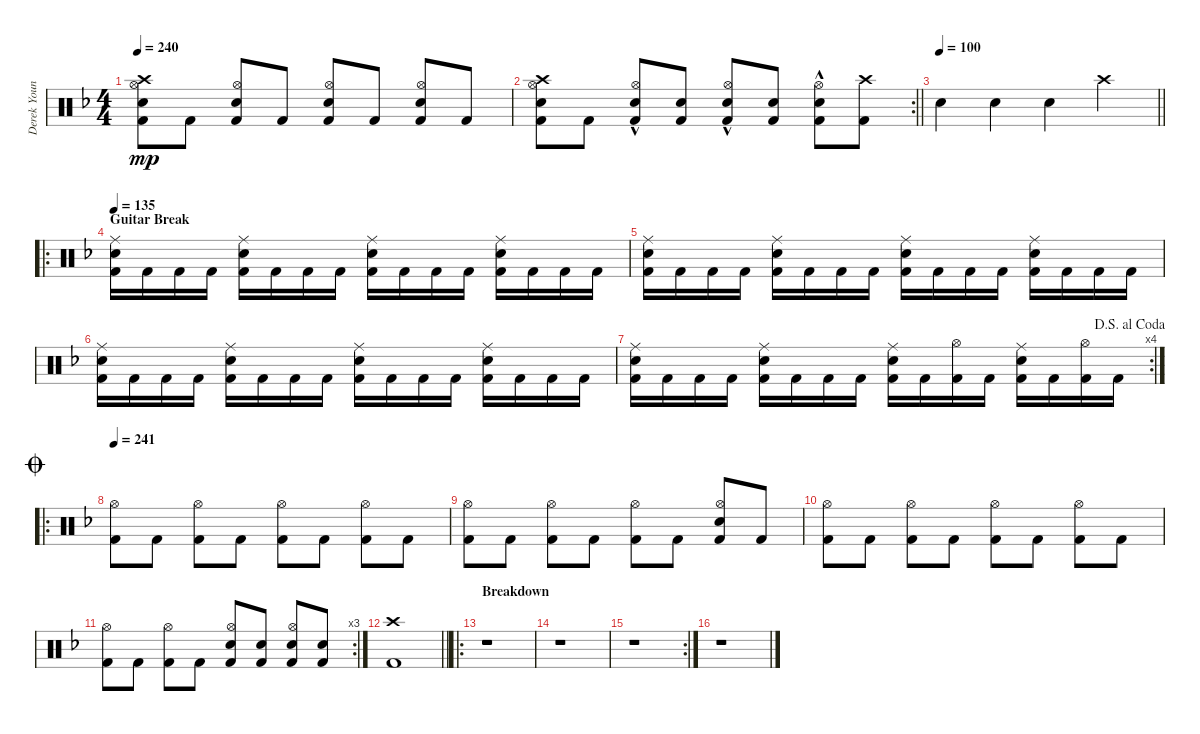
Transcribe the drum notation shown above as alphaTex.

\track ("Derek Youngsma" "Derek Youn") {instrument percussion}
\staff {score}
\articulation defaults
\ts (4 4)
\tempo 240
\clef neutral
\ks f
("Crash high (hit)" "Electric Snare (hit)" "Hi-Hat (open)" "Kick (hit) 2").8{dy mp} "Kick (hit) 2".8 ("Electric Snare (hit)" "Hi-Hat (open)" "Kick (hit) 2").8 "Kick (hit) 2".8 ("Electric Snare (hit)" "Hi-Hat (open)" "Kick (hit) 2").8 "Kick (hit) 2".8 ("Electric Snare (hit)" "Hi-Hat (open)" "Kick (hit) 2").8 "Kick (hit) 2".8 |
\rc 2
\barLineRight lightlight
("Crash high (hit)" "Electric Snare (hit)" "Hi-Hat (open)" "Kick (hit) 2").8 "Kick (hit) 2".8 ("Electric Snare (hit)"{hac} "Hi-Hat (open)" "Kick (hit) 2").8 ("Electric Snare (hit)" "Kick (hit) 2").8 ("Electric Snare (hit)"{hac} "Hi-Hat (open)" "Kick (hit) 2").8 ("Electric Snare (hit)" "Kick (hit) 2").8 ("Electric Snare (hit)"{hac} "Hi-Hat (open)" "Kick (hit) 2").8 ("Crash high (hit)" "Kick (hit) 2").8 |
\tempo 100
\barLineRight lightlight "Electric Snare (hit)".4 "Electric Snare (hit)".4 "Electric Snare (hit)".4 "Crash high (hit)".4
|
\ro
\section ("" "Guitar Break")
\tempo 135
("Ride (middle)" "Electric Snare (hit)" "Kick (hit) 2").16 "Kick (hit) 2".16 "Kick (hit) 2".16 "Kick (hit) 2".16 ("Ride (middle)" "Electric Snare (hit)" "Kick (hit) 2").16 "Kick (hit) 2".16 "Kick (hit) 2".16 "Kick (hit) 2".16 ("Ride (middle)" "Electric Snare (hit)" "Kick (hit) 2").16 "Kick (hit) 2".16 "Kick (hit) 2".16 "Kick (hit) 2".16 ("Ride (middle)" "Electric Snare (hit)" "Kick (hit) 2").16 "Kick (hit) 2".16 "Kick (hit) 2".16 "Kick (hit) 2".16 |
("Ride (middle)" "Electric Snare (hit)" "Kick (hit) 2").16 "Kick (hit) 2".16 "Kick (hit) 2".16 "Kick (hit) 2".16 ("Ride (middle)" "Electric Snare (hit)" "Kick (hit) 2").16 "Kick (hit) 2".16 "Kick (hit) 2".16 "Kick (hit) 2".16 ("Ride (middle)" "Electric Snare (hit)" "Kick (hit) 2").16 "Kick (hit) 2".16 "Kick (hit) 2".16 "Kick (hit) 2".16 ("Ride (middle)" "Electric Snare (hit)" "Kick (hit) 2").16 "Kick (hit) 2".16 "Kick (hit) 2".16 "Kick (hit) 2".16 |
("Ride (middle)" "Electric Snare (hit)" "Kick (hit) 2").16 "Kick (hit) 2".16 "Kick (hit) 2".16 "Kick (hit) 2".16 ("Ride (middle)" "Electric Snare (hit)" "Kick (hit) 2").16 "Kick (hit) 2".16 "Kick (hit) 2".16 "Kick (hit) 2".16 ("Ride (middle)" "Electric Snare (hit)" "Kick (hit) 2").16 "Kick (hit) 2".16 "Kick (hit) 2".16 "Kick (hit) 2".16 ("Ride (middle)" "Electric Snare (hit)" "Kick (hit) 2").16 "Kick (hit) 2".16 "Kick (hit) 2".16 "Kick (hit) 2".16 |
\rc 4
\jump dalsegnoalcoda
("Ride (middle)" "Electric Snare (hit)" "Kick (hit) 2").16 "Kick (hit) 2".16 "Kick (hit) 2".16 "Kick (hit) 2".16 ("Ride (middle)" "Electric Snare (hit)" "Kick (hit) 2").16 "Kick (hit) 2".16 "Kick (hit) 2".16 "Kick (hit) 2".16 ("Ride (middle)" "Electric Snare (hit)" "Kick (hit) 2").16 "Kick (hit) 2".16 ("Hi-Hat (open)" "Kick (hit) 2").16 "Kick (hit) 2".16 ("Ride (middle)" "Electric Snare (hit)" "Kick (hit) 2").16 "Kick (hit) 2".16 ("Hi-Hat (open)" "Kick (hit) 2").16 "Kick (hit) 2".16 |
\ro
\jump coda
\tempo 241
("Hi-Hat (open)" "Kick (hit) 2").8 "Kick (hit) 2".8 ("Hi-Hat (open)" "Kick (hit) 2").8 "Kick (hit) 2".8 ("Hi-Hat (open)" "Kick (hit) 2").8 "Kick (hit) 2".8 ("Hi-Hat (open)" "Kick (hit) 2").8 "Kick (hit) 2".8 |
("Hi-Hat (open)" "Kick (hit) 2").8 "Kick (hit) 2".8 ("Hi-Hat (open)" "Kick (hit) 2").8 "Kick (hit) 2".8 ("Hi-Hat (open)" "Kick (hit) 2").8 "Kick (hit) 2".8 ("Hi-Hat (open)" "Electric Snare (hit)" "Kick (hit) 2").8 "Kick (hit) 2".8 |
("Hi-Hat (open)" "Kick (hit) 2").8 "Kick (hit) 2".8 ("Hi-Hat (open)" "Kick (hit) 2").8 "Kick (hit) 2".8 ("Hi-Hat (open)" "Kick (hit) 2").8 "Kick (hit) 2".8 ("Hi-Hat (open)" "Kick (hit) 2").8 "Kick (hit) 2".8 |
\rc 3
("Hi-Hat (open)" "Kick (hit) 2").8 "Kick (hit) 2".8 ("Hi-Hat (open)" "Kick (hit) 2").8 "Kick (hit) 2".8 ("Hi-Hat (open)" "Electric Snare (hit)" "Kick (hit) 2").8 ("Electric Snare (hit)" "Kick (hit) 2").8 ("Hi-Hat (open)" "Electric Snare (hit)" "Kick (hit) 2").8 ("Electric Snare (hit)" "Kick (hit) 2").8 |
\barLineRight lightlight
("Crash high (hit)" "Kick (hit) 2").1 |
\ro
\section ("" "Breakdown")
r.1 |
r.1 |
\rc 2
r.1 |
r.1
